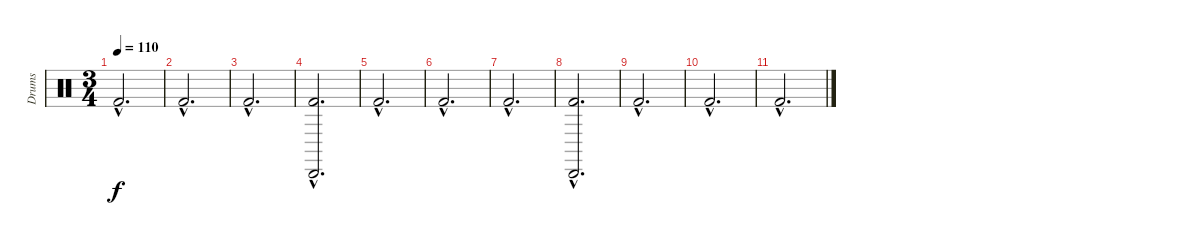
\track ("Drums" "Drums") {instrument percussion}
\staff {score}
\articulation defaults
\ts (3 4)
\tempo 110
\clef neutral
\ks c "Kick (hit) 2"{hac}.2{d dy f}
|
"Kick (hit) 2"{hac}.2{d} |
"Kick (hit) 2"{hac}.2{d} |
("Kick (hit) 2"{hac} "Cabasa (hit)"{hac}).2{d} |
"Kick (hit) 2"{hac}.2{d} |
"Kick (hit) 2"{hac}.2{d} |
"Kick (hit) 2"{hac}.2{d} |
("Kick (hit) 2"{hac} "Cabasa (hit)"{hac}).2{d} |
"Kick (hit) 2"{hac}.2{d} |
"Kick (hit) 2"{hac}.2{d} |
"Kick (hit) 2"{hac}.2{d}
